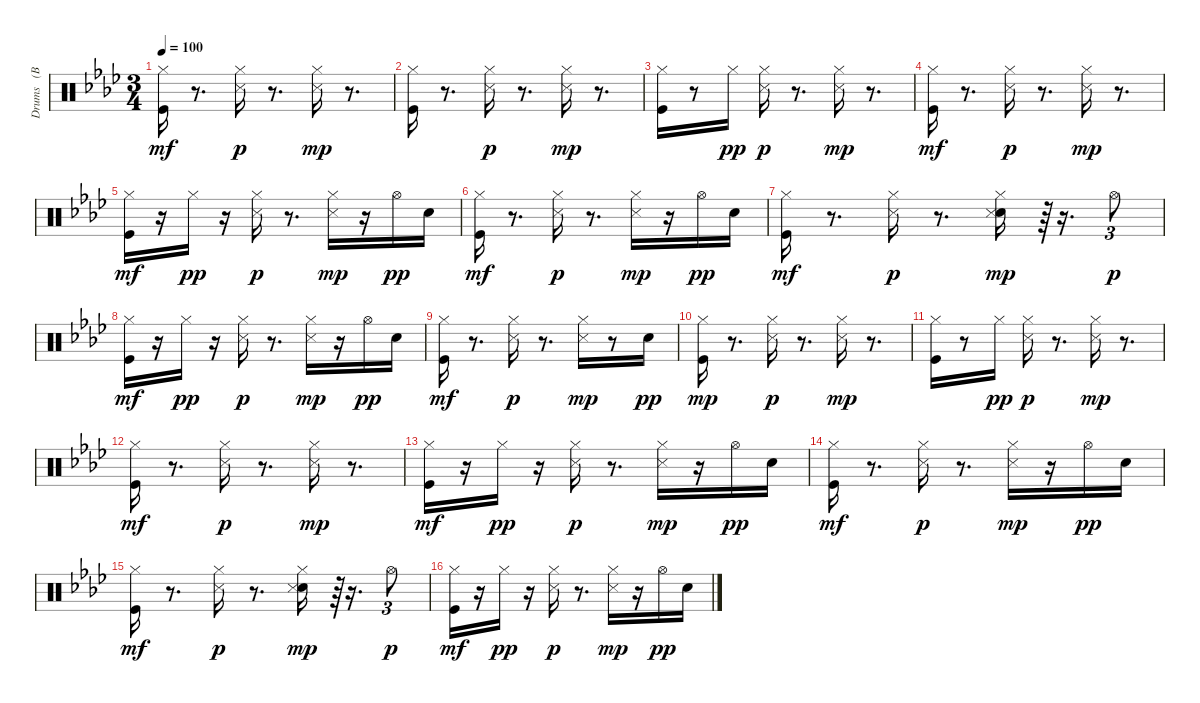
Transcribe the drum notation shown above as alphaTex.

\track ("Drums   (BB)" "Drums   (B") {instrument percussion}
\staff {score}
\articulation defaults
\ts (3 4)
\tempo 100
\clef neutral
\ks fminor
("Kick (hit)" "Hi-Hat (closed)").16{dy mf} r.8{d} ("Hi-Hat (closed)" "Snare (side stick) 3").16{dy p} r.8{d} ("Hi-Hat (closed)" "Snare (side stick) 3").16{dy mp} r.8{d} |
("Kick (hit)" "Hi-Hat (closed)").16 r.8{d} ("Hi-Hat (closed)" "Snare (side stick) 3").16{dy p} r.8{d} ("Hi-Hat (closed)" "Snare (side stick) 3").16{dy mp} r.8{d} |
("Kick (hit)" "Hi-Hat (closed)").16 r.8 "Hi-Hat (closed)".16{dy pp} ("Hi-Hat (closed)" "Snare (side stick) 3").16{dy p} r.8{d} ("Hi-Hat (closed)" "Snare (side stick) 3").16{dy mp} r.8{d} |
("Kick (hit)" "Hi-Hat (closed)").16{dy mf} r.8{d} ("Hi-Hat (closed)" "Snare (side stick) 3").16{dy p} r.8{d} ("Hi-Hat (closed)" "Snare (side stick) 3").16{dy mp} r.8{d} |
("Kick (hit)" "Hi-Hat (closed)").16{dy mf} r.16 "Hi-Hat (closed)".16{dy pp} r.16 ("Hi-Hat (closed)" "Snare (side stick) 3").16{dy p} r.8{d} ("Hi-Hat (closed)" "Snare (side stick) 3").16{dy mp} r.16 "Hi-Hat (open)".16{dy pp} "Snare (hit) 2".16 |
("Kick (hit)" "Hi-Hat (closed)").16{dy mf} r.8{d} ("Hi-Hat (closed)" "Snare (side stick) 3").16{dy p} r.8{d} ("Hi-Hat (closed)" "Snare (side stick) 3").16{dy mp} r.16 "Hi-Hat (open)".16{dy pp} "Snare (hit) 2".16 |
("Kick (hit)" "Hi-Hat (closed)").16{dy mf} r.8{d} ("Hi-Hat (closed)" "Snare (side stick) 3").16{dy p} r.8{d} ("Snare (hit) 2" "Hi-Hat (closed)" "Snare (side stick) 3").16{dy mp} r.64{tu (3 2)} r.16{d} "Hi-Hat (open)".8{tu (3 2) dy p} |
("Kick (hit)" "Hi-Hat (closed)").16{dy mf} r.16 "Hi-Hat (closed)".16{dy pp} r.16 ("Hi-Hat (closed)" "Snare (side stick) 3").16{dy p} r.8{d} ("Hi-Hat (closed)" "Snare (side stick) 3").16{dy mp} r.16 "Hi-Hat (open)".16{dy pp} "Snare (hit) 2".16 |
("Kick (hit)" "Hi-Hat (closed)").16{dy mf} r.8{d} ("Hi-Hat (closed)" "Snare (side stick) 3").16{dy p} r.8{d} ("Hi-Hat (closed)" "Snare (side stick) 3").16{dy mp} r.8 "Snare (hit) 2".16{dy pp} |
("Kick (hit)" "Hi-Hat (closed)").16{dy mp} r.8{d} ("Hi-Hat (closed)" "Snare (side stick) 3").16{dy p} r.8{d} ("Hi-Hat (closed)" "Snare (side stick) 3").16{dy mp} r.8{d} |
("Kick (hit)" "Hi-Hat (closed)").16 r.8 "Hi-Hat (closed)".16{dy pp} ("Hi-Hat (closed)" "Snare (side stick) 3").16{dy p} r.8{d} ("Hi-Hat (closed)" "Snare (side stick) 3").16{dy mp} r.8{d} |
("Kick (hit)" "Hi-Hat (closed)").16{dy mf} r.8{d} ("Hi-Hat (closed)" "Snare (side stick) 3").16{dy p} r.8{d} ("Hi-Hat (closed)" "Snare (side stick) 3").16{dy mp} r.8{d} |
("Kick (hit)" "Hi-Hat (closed)").16{dy mf} r.16 "Hi-Hat (closed)".16{dy pp} r.16 ("Hi-Hat (closed)" "Snare (side stick) 3").16{dy p} r.8{d} ("Hi-Hat (closed)" "Snare (side stick) 3").16{dy mp} r.16 "Hi-Hat (open)".16{dy pp} "Snare (hit) 2".16 |
("Kick (hit)" "Hi-Hat (closed)").16{dy mf} r.8{d} ("Hi-Hat (closed)" "Snare (side stick) 3").16{dy p} r.8{d} ("Hi-Hat (closed)" "Snare (side stick) 3").16{dy mp} r.16 "Hi-Hat (open)".16{dy pp} "Snare (hit) 2".16 |
("Kick (hit)" "Hi-Hat (closed)").16{dy mf} r.8{d} ("Hi-Hat (closed)" "Snare (side stick) 3").16{dy p} r.8{d} ("Snare (hit) 2" "Hi-Hat (closed)" "Snare (side stick) 3").16{dy mp} r.64{tu (3 2)} r.16{d} "Hi-Hat (open)".8{tu (3 2) dy p} |
("Kick (hit)" "Hi-Hat (closed)").16{dy mf} r.16 "Hi-Hat (closed)".16{dy pp} r.16 ("Hi-Hat (closed)" "Snare (side stick) 3").16{dy p} r.8{d} ("Hi-Hat (closed)" "Snare (side stick) 3").16{dy mp} r.16 "Hi-Hat (open)".16{dy pp} "Snare (hit) 2".16
